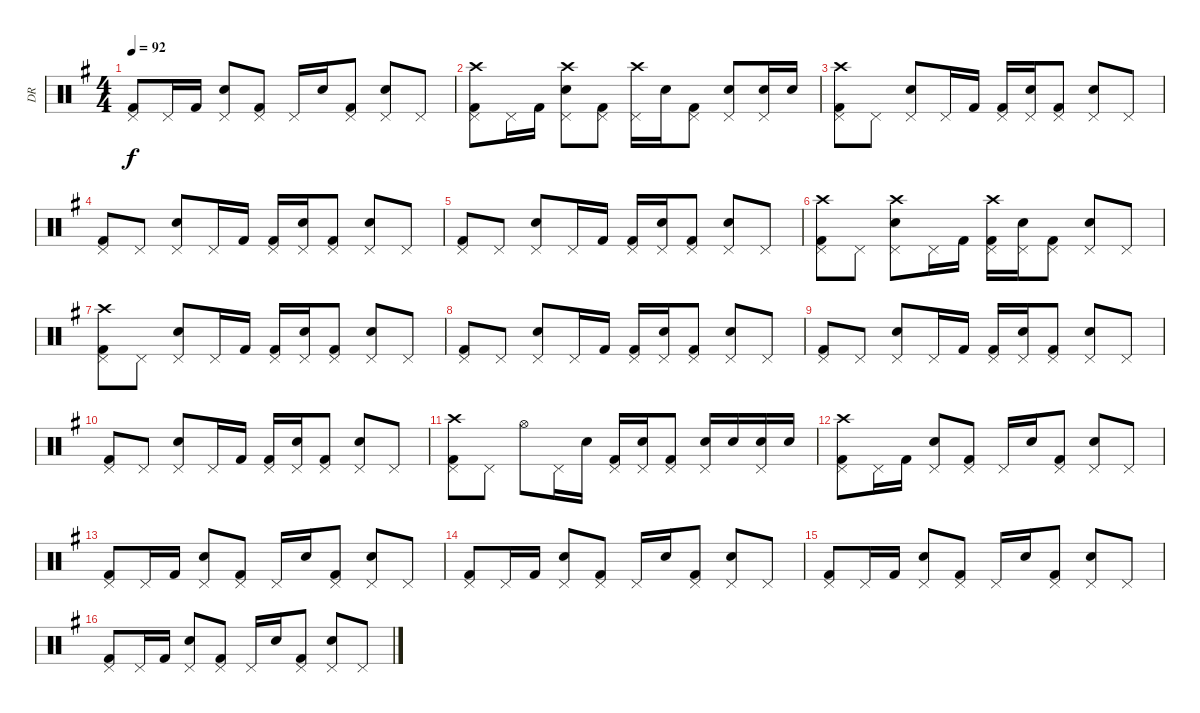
\track ("DR" "DR") {instrument percussion}
\staff {score}
\articulation defaults
\ts (4 4)
\tempo 92
\clef neutral
\ks g
("Pedal Hi-Hat (hit)" "Kick (hit) 2").8{dy f} "Pedal Hi-Hat (hit)".16 "Kick (hit) 2".16 ("Pedal Hi-Hat (hit)" "Electric Snare (hit)").8 ("Pedal Hi-Hat (hit)" "Kick (hit) 2").8 "Pedal Hi-Hat (hit)".16 "Electric Snare (hit)".16 ("Pedal Hi-Hat (hit)" "Kick (hit) 2").8 ("Pedal Hi-Hat (hit)" "Electric Snare (hit)").8 "Pedal Hi-Hat (hit)".8 |
("Crash high (hit)" "Pedal Hi-Hat (hit)" "Kick (hit) 2").8 "Pedal Hi-Hat (hit)".16 "Kick (hit) 2".16 ("Crash high (hit)" "Pedal Hi-Hat (hit)" "Electric Snare (hit)").8 ("Pedal Hi-Hat (hit)" "Kick (hit) 2").8 ("Crash high (hit)" "Pedal Hi-Hat (hit)").16 "Electric Snare (hit)".16 ("Pedal Hi-Hat (hit)" "Kick (hit) 2").8 ("Pedal Hi-Hat (hit)" "Electric Snare (hit)").8 ("Pedal Hi-Hat (hit)" "Electric Snare (hit)").16 "Electric Snare (hit)".16 |
("Crash high (hit)" "Pedal Hi-Hat (hit)" "Kick (hit) 2").8 "Pedal Hi-Hat (hit)".8 ("Pedal Hi-Hat (hit)" "Electric Snare (hit)").8 "Pedal Hi-Hat (hit)".16 "Kick (hit) 2".16 ("Pedal Hi-Hat (hit)" "Kick (hit) 2").16 ("Pedal Hi-Hat (hit)" "Electric Snare (hit)").16 ("Pedal Hi-Hat (hit)" "Kick (hit) 2").8 ("Pedal Hi-Hat (hit)" "Electric Snare (hit)").8 "Pedal Hi-Hat (hit)".8 |
("Pedal Hi-Hat (hit)" "Kick (hit) 2").8 "Pedal Hi-Hat (hit)".8 ("Pedal Hi-Hat (hit)" "Electric Snare (hit)").8 "Pedal Hi-Hat (hit)".16 "Kick (hit) 2".16 ("Pedal Hi-Hat (hit)" "Kick (hit) 2").16 ("Pedal Hi-Hat (hit)" "Electric Snare (hit)").16 ("Pedal Hi-Hat (hit)" "Kick (hit) 2").8 ("Pedal Hi-Hat (hit)" "Electric Snare (hit)").8 "Pedal Hi-Hat (hit)".8 |
("Pedal Hi-Hat (hit)" "Kick (hit) 2").8 "Pedal Hi-Hat (hit)".8 ("Pedal Hi-Hat (hit)" "Electric Snare (hit)").8 "Pedal Hi-Hat (hit)".16 "Kick (hit) 2".16 ("Pedal Hi-Hat (hit)" "Kick (hit) 2").16 ("Pedal Hi-Hat (hit)" "Electric Snare (hit)").16 ("Pedal Hi-Hat (hit)" "Kick (hit) 2").8 ("Pedal Hi-Hat (hit)" "Electric Snare (hit)").8 "Pedal Hi-Hat (hit)".8 |
("Crash high (hit)" "Pedal Hi-Hat (hit)" "Kick (hit) 2").8 "Pedal Hi-Hat (hit)".8 ("Crash high (hit)" "Pedal Hi-Hat (hit)" "Electric Snare (hit)").8 "Pedal Hi-Hat (hit)".16 "Kick (hit) 2".16 ("Crash high (hit)" "Pedal Hi-Hat (hit)" "Kick (hit) 2").16 ("Pedal Hi-Hat (hit)" "Electric Snare (hit)").16 ("Pedal Hi-Hat (hit)" "Kick (hit) 2").8 ("Pedal Hi-Hat (hit)" "Electric Snare (hit)").8 "Pedal Hi-Hat (hit)".8 |
("Crash high (hit)" "Pedal Hi-Hat (hit)" "Kick (hit) 2").8 "Pedal Hi-Hat (hit)".8 ("Pedal Hi-Hat (hit)" "Electric Snare (hit)").8 "Pedal Hi-Hat (hit)".16 "Kick (hit) 2".16 ("Pedal Hi-Hat (hit)" "Kick (hit) 2").16 ("Pedal Hi-Hat (hit)" "Electric Snare (hit)").16 ("Pedal Hi-Hat (hit)" "Kick (hit) 2").8 ("Pedal Hi-Hat (hit)" "Electric Snare (hit)").8 "Pedal Hi-Hat (hit)".8 |
("Pedal Hi-Hat (hit)" "Kick (hit) 2").8 "Pedal Hi-Hat (hit)".8 ("Pedal Hi-Hat (hit)" "Electric Snare (hit)").8 "Pedal Hi-Hat (hit)".16 "Kick (hit) 2".16 ("Pedal Hi-Hat (hit)" "Kick (hit) 2").16 ("Pedal Hi-Hat (hit)" "Electric Snare (hit)").16 ("Pedal Hi-Hat (hit)" "Kick (hit) 2").8 ("Pedal Hi-Hat (hit)" "Electric Snare (hit)").8 "Pedal Hi-Hat (hit)".8 |
("Pedal Hi-Hat (hit)" "Kick (hit) 2").8 "Pedal Hi-Hat (hit)".8 ("Pedal Hi-Hat (hit)" "Electric Snare (hit)").8 "Pedal Hi-Hat (hit)".16 "Kick (hit) 2".16 ("Pedal Hi-Hat (hit)" "Kick (hit) 2").16 ("Pedal Hi-Hat (hit)" "Electric Snare (hit)").16 ("Pedal Hi-Hat (hit)" "Kick (hit) 2").8 ("Pedal Hi-Hat (hit)" "Electric Snare (hit)").8 "Pedal Hi-Hat (hit)".8 |
("Pedal Hi-Hat (hit)" "Kick (hit) 2").8 "Pedal Hi-Hat (hit)".8 ("Pedal Hi-Hat (hit)" "Electric Snare (hit)").8 "Pedal Hi-Hat (hit)".16 "Kick (hit) 2".16 ("Pedal Hi-Hat (hit)" "Kick (hit) 2").16 ("Pedal Hi-Hat (hit)" "Electric Snare (hit)").16 ("Pedal Hi-Hat (hit)" "Kick (hit) 2").8 ("Pedal Hi-Hat (hit)" "Electric Snare (hit)").8 "Pedal Hi-Hat (hit)".8 |
("Crash high (hit)" "Pedal Hi-Hat (hit)" "Kick (hit) 2").8 "Pedal Hi-Hat (hit)".8 "Hi-Hat (open)".8 "Pedal Hi-Hat (hit)".16 "Electric Snare (hit)".16 ("Pedal Hi-Hat (hit)" "Kick (hit) 2").16 ("Pedal Hi-Hat (hit)" "Electric Snare (hit)").16 ("Pedal Hi-Hat (hit)" "Kick (hit) 2").8 ("Pedal Hi-Hat (hit)" "Electric Snare (hit)").16 "Electric Snare (hit)".16 ("Pedal Hi-Hat (hit)" "Electric Snare (hit)").16 "Electric Snare (hit)".16 |
("Crash high (hit)" "Pedal Hi-Hat (hit)" "Kick (hit) 2").8 "Pedal Hi-Hat (hit)".16 "Kick (hit) 2".16 ("Pedal Hi-Hat (hit)" "Electric Snare (hit)").8 ("Pedal Hi-Hat (hit)" "Kick (hit) 2").8 "Pedal Hi-Hat (hit)".16 "Electric Snare (hit)".16 ("Pedal Hi-Hat (hit)" "Kick (hit) 2").8 ("Pedal Hi-Hat (hit)" "Electric Snare (hit)").8 "Pedal Hi-Hat (hit)".8 |
("Pedal Hi-Hat (hit)" "Kick (hit) 2").8 "Pedal Hi-Hat (hit)".16 "Kick (hit) 2".16 ("Pedal Hi-Hat (hit)" "Electric Snare (hit)").8 ("Pedal Hi-Hat (hit)" "Kick (hit) 2").8 "Pedal Hi-Hat (hit)".16 "Electric Snare (hit)".16 ("Pedal Hi-Hat (hit)" "Kick (hit) 2").8 ("Pedal Hi-Hat (hit)" "Electric Snare (hit)").8 "Pedal Hi-Hat (hit)".8 |
("Pedal Hi-Hat (hit)" "Kick (hit) 2").8 "Pedal Hi-Hat (hit)".16 "Kick (hit) 2".16 ("Pedal Hi-Hat (hit)" "Electric Snare (hit)").8 ("Pedal Hi-Hat (hit)" "Kick (hit) 2").8 "Pedal Hi-Hat (hit)".16 "Electric Snare (hit)".16 ("Pedal Hi-Hat (hit)" "Kick (hit) 2").8 ("Pedal Hi-Hat (hit)" "Electric Snare (hit)").8 "Pedal Hi-Hat (hit)".8 |
("Pedal Hi-Hat (hit)" "Kick (hit) 2").8 "Pedal Hi-Hat (hit)".16 "Kick (hit) 2".16 ("Pedal Hi-Hat (hit)" "Electric Snare (hit)").8 ("Pedal Hi-Hat (hit)" "Kick (hit) 2").8 "Pedal Hi-Hat (hit)".16 "Electric Snare (hit)".16 ("Pedal Hi-Hat (hit)" "Kick (hit) 2").8 ("Pedal Hi-Hat (hit)" "Electric Snare (hit)").8 "Pedal Hi-Hat (hit)".8 |
("Pedal Hi-Hat (hit)" "Kick (hit) 2").8 "Pedal Hi-Hat (hit)".16 "Kick (hit) 2".16 ("Pedal Hi-Hat (hit)" "Electric Snare (hit)").8 ("Pedal Hi-Hat (hit)" "Kick (hit) 2").8 "Pedal Hi-Hat (hit)".16 "Electric Snare (hit)".16 ("Pedal Hi-Hat (hit)" "Kick (hit) 2").8 ("Pedal Hi-Hat (hit)" "Electric Snare (hit)").8 "Pedal Hi-Hat (hit)".8
